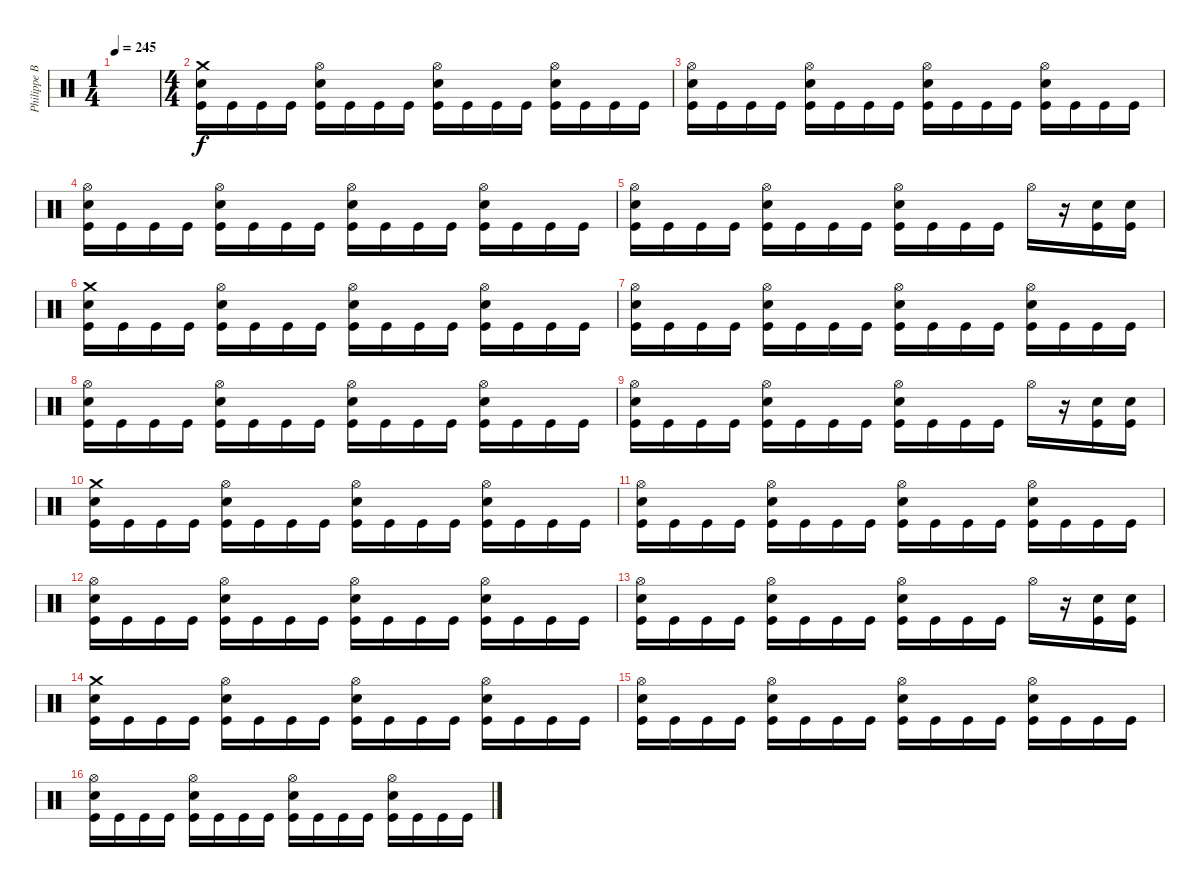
\track ("Philippe Boucher" "Philippe B") {instrument percussion}
\staff {score}
\articulation defaults
\ts (1 4)
\tempo 245
\clef neutral
\ks c
|
\ts (4 4)
("Crash medium (hit)" "Electric Snare (hit)" "Kick (hit)").16 "Kick (hit)".16 "Kick (hit)".16 "Kick (hit)".16 ("Hi-Hat (open)" "Electric Snare (hit)" "Kick (hit)").16 "Kick (hit)".16 "Kick (hit)".16 "Kick (hit)".16 ("Hi-Hat (open)" "Electric Snare (hit)" "Kick (hit)").16 "Kick (hit)".16 "Kick (hit)".16 "Kick (hit)".16 ("Hi-Hat (open)" "Electric Snare (hit)" "Kick (hit)").16 "Kick (hit)".16 "Kick (hit)".16 "Kick (hit)".16 |
("Hi-Hat (open)" "Electric Snare (hit)" "Kick (hit)").16 "Kick (hit)".16 "Kick (hit)".16 "Kick (hit)".16 ("Hi-Hat (open)" "Electric Snare (hit)" "Kick (hit)").16 "Kick (hit)".16 "Kick (hit)".16 "Kick (hit)".16 ("Hi-Hat (open)" "Electric Snare (hit)" "Kick (hit)").16 "Kick (hit)".16 "Kick (hit)".16 "Kick (hit)".16 ("Hi-Hat (open)" "Electric Snare (hit)" "Kick (hit)").16 "Kick (hit)".16 "Kick (hit)".16 "Kick (hit)".16 |
("Hi-Hat (open)" "Electric Snare (hit)" "Kick (hit)").16 "Kick (hit)".16 "Kick (hit)".16 "Kick (hit)".16 ("Hi-Hat (open)" "Electric Snare (hit)" "Kick (hit)").16 "Kick (hit)".16 "Kick (hit)".16 "Kick (hit)".16 ("Hi-Hat (open)" "Electric Snare (hit)" "Kick (hit)").16 "Kick (hit)".16 "Kick (hit)".16 "Kick (hit)".16 ("Hi-Hat (open)" "Electric Snare (hit)" "Kick (hit)").16 "Kick (hit)".16 "Kick (hit)".16 "Kick (hit)".16 |
("Hi-Hat (open)" "Electric Snare (hit)" "Kick (hit)").16 "Kick (hit)".16 "Kick (hit)".16 "Kick (hit)".16 ("Hi-Hat (open)" "Electric Snare (hit)" "Kick (hit)").16 "Kick (hit)".16 "Kick (hit)".16 "Kick (hit)".16 ("Hi-Hat (open)" "Electric Snare (hit)" "Kick (hit)").16 "Kick (hit)".16 "Kick (hit)".16 "Kick (hit)".16 "Hi-Hat (open)".16 r.16 ("Electric Snare (hit)" "Kick (hit)").16 ("Electric Snare (hit)" "Kick (hit)").16 |
("Crash medium (hit)" "Electric Snare (hit)" "Kick (hit)").16 "Kick (hit)".16 "Kick (hit)".16 "Kick (hit)".16 ("Hi-Hat (open)" "Electric Snare (hit)" "Kick (hit)").16 "Kick (hit)".16 "Kick (hit)".16 "Kick (hit)".16 ("Hi-Hat (open)" "Electric Snare (hit)" "Kick (hit)").16 "Kick (hit)".16 "Kick (hit)".16 "Kick (hit)".16 ("Hi-Hat (open)" "Electric Snare (hit)" "Kick (hit)").16 "Kick (hit)".16 "Kick (hit)".16 "Kick (hit)".16 |
("Hi-Hat (open)" "Electric Snare (hit)" "Kick (hit)").16 "Kick (hit)".16 "Kick (hit)".16 "Kick (hit)".16 ("Hi-Hat (open)" "Electric Snare (hit)" "Kick (hit)").16 "Kick (hit)".16 "Kick (hit)".16 "Kick (hit)".16 ("Hi-Hat (open)" "Electric Snare (hit)" "Kick (hit)").16 "Kick (hit)".16 "Kick (hit)".16 "Kick (hit)".16 ("Hi-Hat (open)" "Electric Snare (hit)" "Kick (hit)").16 "Kick (hit)".16 "Kick (hit)".16 "Kick (hit)".16 |
("Hi-Hat (open)" "Electric Snare (hit)" "Kick (hit)").16 "Kick (hit)".16 "Kick (hit)".16 "Kick (hit)".16 ("Hi-Hat (open)" "Electric Snare (hit)" "Kick (hit)").16 "Kick (hit)".16 "Kick (hit)".16 "Kick (hit)".16 ("Hi-Hat (open)" "Electric Snare (hit)" "Kick (hit)").16 "Kick (hit)".16 "Kick (hit)".16 "Kick (hit)".16 ("Hi-Hat (open)" "Electric Snare (hit)" "Kick (hit)").16 "Kick (hit)".16 "Kick (hit)".16 "Kick (hit)".16 |
("Hi-Hat (open)" "Electric Snare (hit)" "Kick (hit)").16 "Kick (hit)".16 "Kick (hit)".16 "Kick (hit)".16 ("Hi-Hat (open)" "Electric Snare (hit)" "Kick (hit)").16 "Kick (hit)".16 "Kick (hit)".16 "Kick (hit)".16 ("Hi-Hat (open)" "Electric Snare (hit)" "Kick (hit)").16 "Kick (hit)".16 "Kick (hit)".16 "Kick (hit)".16 "Hi-Hat (open)".16 r.16 ("Electric Snare (hit)" "Kick (hit)").16 ("Electric Snare (hit)" "Kick (hit)").16 |
("Crash medium (hit)" "Electric Snare (hit)" "Kick (hit)").16 "Kick (hit)".16 "Kick (hit)".16 "Kick (hit)".16 ("Hi-Hat (open)" "Electric Snare (hit)" "Kick (hit)").16 "Kick (hit)".16 "Kick (hit)".16 "Kick (hit)".16 ("Hi-Hat (open)" "Electric Snare (hit)" "Kick (hit)").16 "Kick (hit)".16 "Kick (hit)".16 "Kick (hit)".16 ("Hi-Hat (open)" "Electric Snare (hit)" "Kick (hit)").16 "Kick (hit)".16 "Kick (hit)".16 "Kick (hit)".16 |
("Hi-Hat (open)" "Electric Snare (hit)" "Kick (hit)").16 "Kick (hit)".16 "Kick (hit)".16 "Kick (hit)".16 ("Hi-Hat (open)" "Electric Snare (hit)" "Kick (hit)").16 "Kick (hit)".16 "Kick (hit)".16 "Kick (hit)".16 ("Hi-Hat (open)" "Electric Snare (hit)" "Kick (hit)").16 "Kick (hit)".16 "Kick (hit)".16 "Kick (hit)".16 ("Hi-Hat (open)" "Electric Snare (hit)" "Kick (hit)").16 "Kick (hit)".16 "Kick (hit)".16 "Kick (hit)".16 |
("Hi-Hat (open)" "Electric Snare (hit)" "Kick (hit)").16 "Kick (hit)".16 "Kick (hit)".16 "Kick (hit)".16 ("Hi-Hat (open)" "Electric Snare (hit)" "Kick (hit)").16 "Kick (hit)".16 "Kick (hit)".16 "Kick (hit)".16 ("Hi-Hat (open)" "Electric Snare (hit)" "Kick (hit)").16 "Kick (hit)".16 "Kick (hit)".16 "Kick (hit)".16 ("Hi-Hat (open)" "Electric Snare (hit)" "Kick (hit)").16 "Kick (hit)".16 "Kick (hit)".16 "Kick (hit)".16 |
("Hi-Hat (open)" "Electric Snare (hit)" "Kick (hit)").16 "Kick (hit)".16 "Kick (hit)".16 "Kick (hit)".16 ("Hi-Hat (open)" "Electric Snare (hit)" "Kick (hit)").16 "Kick (hit)".16 "Kick (hit)".16 "Kick (hit)".16 ("Hi-Hat (open)" "Electric Snare (hit)" "Kick (hit)").16 "Kick (hit)".16 "Kick (hit)".16 "Kick (hit)".16 "Hi-Hat (open)".16 r.16 ("Electric Snare (hit)" "Kick (hit)").16 ("Electric Snare (hit)" "Kick (hit)").16 |
("Crash medium (hit)" "Electric Snare (hit)" "Kick (hit)").16 "Kick (hit)".16 "Kick (hit)".16 "Kick (hit)".16 ("Hi-Hat (open)" "Electric Snare (hit)" "Kick (hit)").16 "Kick (hit)".16 "Kick (hit)".16 "Kick (hit)".16 ("Hi-Hat (open)" "Electric Snare (hit)" "Kick (hit)").16 "Kick (hit)".16 "Kick (hit)".16 "Kick (hit)".16 ("Hi-Hat (open)" "Electric Snare (hit)" "Kick (hit)").16 "Kick (hit)".16 "Kick (hit)".16 "Kick (hit)".16 |
("Hi-Hat (open)" "Electric Snare (hit)" "Kick (hit)").16 "Kick (hit)".16 "Kick (hit)".16 "Kick (hit)".16 ("Hi-Hat (open)" "Electric Snare (hit)" "Kick (hit)").16 "Kick (hit)".16 "Kick (hit)".16 "Kick (hit)".16 ("Hi-Hat (open)" "Electric Snare (hit)" "Kick (hit)").16 "Kick (hit)".16 "Kick (hit)".16 "Kick (hit)".16 ("Hi-Hat (open)" "Electric Snare (hit)" "Kick (hit)").16 "Kick (hit)".16 "Kick (hit)".16 "Kick (hit)".16 |
("Hi-Hat (open)" "Electric Snare (hit)" "Kick (hit)").16 "Kick (hit)".16 "Kick (hit)".16 "Kick (hit)".16 ("Hi-Hat (open)" "Electric Snare (hit)" "Kick (hit)").16 "Kick (hit)".16 "Kick (hit)".16 "Kick (hit)".16 ("Hi-Hat (open)" "Electric Snare (hit)" "Kick (hit)").16 "Kick (hit)".16 "Kick (hit)".16 "Kick (hit)".16 ("Hi-Hat (open)" "Electric Snare (hit)" "Kick (hit)").16 "Kick (hit)".16 "Kick (hit)".16 "Kick (hit)".16
